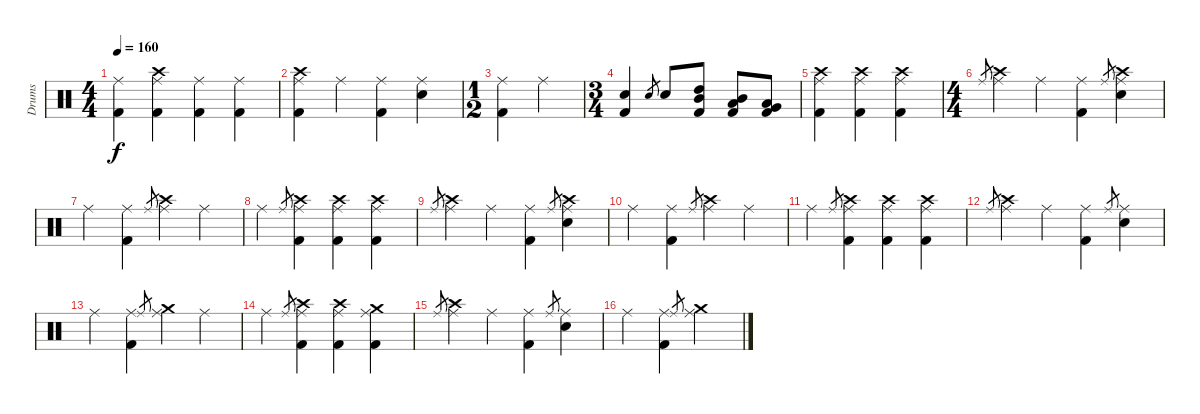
\track ("Drums" "Drums") {instrument percussion}
\staff {score}
\articulation defaults
\ts (4 4)
\tempo 160
\clef neutral
\ks c
("Ride (middle)" "Kick (hit) 2").4{dy f} ("Ride (middle)" "Crash high (hit)" "Kick (hit) 2").4 ("Ride (middle)" "Kick (hit) 2").4 ("Ride (middle)" "Kick (hit) 2").4 |
("Ride (middle)" "Crash high (hit)" "Kick (hit) 2").4 "Ride (middle)".4 ("Ride (middle)" "Kick (hit) 2").4 ("Ride (middle)" "Electric Snare (hit)").4 |
\ts (1 2)
("Ride (middle)" "Kick (hit) 2").4 "Ride (middle)".4 |
\ts (3 4)
("Electric Snare (hit)" "Kick (hit) 2").4 "Electric Snare (hit)".8{gr} "Electric Snare (hit)".8 ("Mid Tom (hit)" "High Tom (hit)" "Kick (hit) 2").8 ("Low Tom (hit)" "Mid Tom (hit)" "Kick (hit) 2").8 ("Very Low Tom (hit)" "Low Tom (hit)" "Kick (hit) 2").8 |
("Ride (middle)" "Crash high (hit)" "Kick (hit) 2").4 ("Ride (middle)" "Crash high (hit)" "Kick (hit) 2").4 ("Ride (middle)" "Crash high (hit)" "Kick (hit) 2").4 |
\ts (4 4)
"Ride (middle)".8{gr} ("Ride (middle)" "Crash high (hit)").4 "Ride (middle)".4 ("Ride (middle)" "Kick (hit) 2").4 "Ride (middle)".8{gr} ("Ride (middle)" "Electric Snare (hit)" "Crash high (hit)").4 |
"Ride (middle)".4 ("Ride (middle)" "Kick (hit) 2").4 "Ride (middle)".8{gr} ("Ride (middle)" "Crash high (hit)").4 "Ride (middle)".4 |
"Ride (middle)".4 "Ride (middle)".8{gr} ("Ride (middle)" "Crash high (hit)" "Kick (hit) 2").4 ("Ride (middle)" "Crash high (hit)" "Kick (hit) 2").4 ("Ride (middle)" "Crash high (hit)" "Kick (hit) 2").4 |
"Ride (middle)".8{gr} ("Ride (middle)" "Crash high (hit)").4 "Ride (middle)".4 ("Ride (middle)" "Kick (hit) 2").4 "Ride (middle)".8{gr} ("Ride (middle)" "Electric Snare (hit)" "Crash high (hit)").4 |
"Ride (middle)".4 ("Ride (middle)" "Kick (hit) 2").4 "Ride (middle)".8{gr} ("Ride (middle)" "Crash high (hit)").4 "Ride (middle)".4 |
"Ride (middle)".4 "Ride (middle)".8{gr} ("Ride (middle)" "Crash high (hit)" "Kick (hit) 2").4 ("Ride (middle)" "Crash high (hit)" "Kick (hit) 2").4 ("Ride (middle)" "Crash high (hit)" "Kick (hit) 2").4 |
"Ride (middle)".8{gr} ("Ride (middle)" "Crash high (hit)").4 "Ride (middle)".4 ("Ride (middle)" "Kick (hit) 2").4 "Ride (middle)".8{gr} ("Ride (middle)" "Electric Snare (hit)").4 |
"Ride (middle)".4 ("Ride (middle)" "Kick (hit) 2").4 "Ride (middle)".8{gr} ("Ride (middle)" "Crash medium (hit)").4 "Ride (middle)".4 |
"Ride (middle)".4 "Ride (middle)".8{gr} ("Ride (middle)" "Crash high (hit)" "Kick (hit) 2").4 ("Ride (middle)" "Crash high (hit)" "Kick (hit) 2").4 ("Ride (middle)" "Crash medium (hit)" "Kick (hit) 2").4 |
"Ride (middle)".8{gr} ("Ride (middle)" "Crash high (hit)").4 "Ride (middle)".4 ("Ride (middle)" "Kick (hit) 2").4 "Ride (middle)".8{gr} ("Ride (middle)" "Electric Snare (hit)").4 |
"Ride (middle)".4 ("Ride (middle)" "Kick (hit) 2").4 "Ride (middle)".8{gr} ("Ride (middle)" "Crash medium (hit)").2
